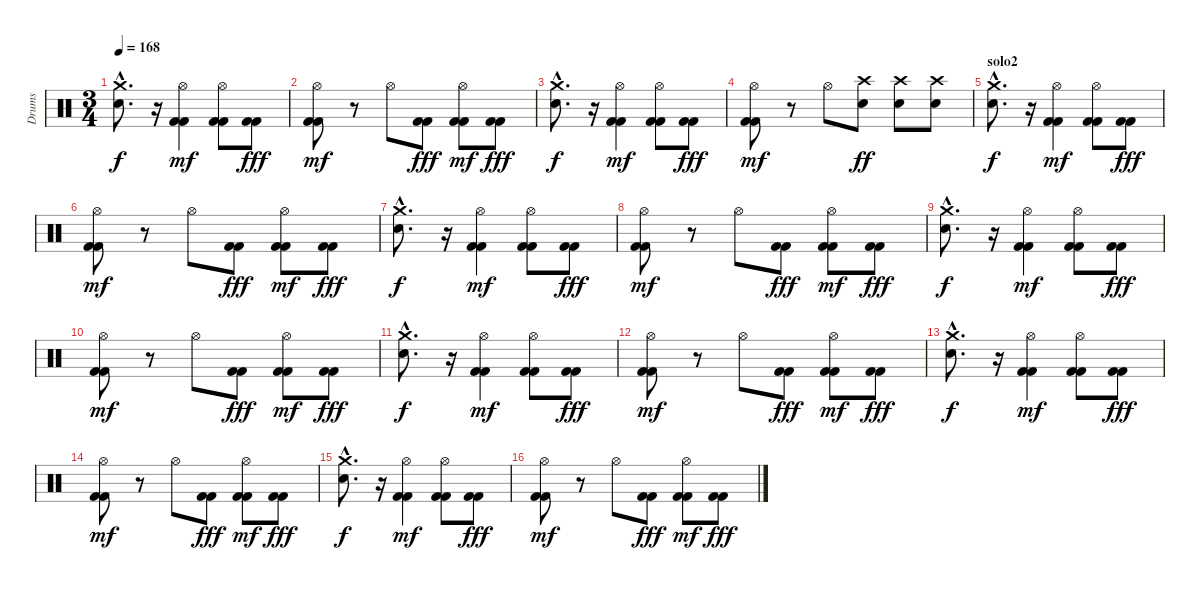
\track ("Drums" "Drums") {instrument percussion}
\staff {score}
\articulation defaults
\ts (3 4)
\tempo 168
\clef neutral
\ks c
("Crash medium (hit)"{hac} "Electric Snare (hit)"{hac}).8{d dy f} r.16 ("Kick (hit) 2" "Kick (hit) 2" "Hi-Hat (open)").4{dy mf} ("Kick (hit) 2" "Kick (hit) 2" "Hi-Hat (open)").8 ("Kick (hit) 2" "Kick (hit) 2").8{dy fff} |
("Kick (hit) 2" "Kick (hit) 2" "Hi-Hat (open)").8{dy mf} r.8 "Hi-Hat (open)".8 ("Kick (hit) 2" "Kick (hit) 2").8{dy fff} ("Kick (hit) 2" "Kick (hit) 2" "Hi-Hat (open)").8{dy mf} ("Kick (hit) 2" "Kick (hit) 2").8{dy fff} |
("Crash medium (hit)"{hac} "Electric Snare (hit)"{hac}).8{d dy f} r.16 ("Kick (hit) 2" "Kick (hit) 2" "Hi-Hat (open)").4{dy mf} ("Kick (hit) 2" "Kick (hit) 2" "Hi-Hat (open)").8 ("Kick (hit) 2" "Kick (hit) 2").8{dy fff} |
("Kick (hit) 2" "Kick (hit) 2" "Hi-Hat (open)").8{dy mf} r.8 "Hi-Hat (open)".8 ("Crash high (hit)" "Electric Snare (hit)").8{dy ff} ("Crash high (hit)" "Electric Snare (hit)").8 ("Crash high (hit)" "Electric Snare (hit)").8 |
\section ("" "solo2")
("Crash medium (hit)"{hac} "Electric Snare (hit)"{hac}).8{d dy f} r.16 ("Kick (hit) 2" "Kick (hit) 2" "Hi-Hat (open)").4{dy mf} ("Kick (hit) 2" "Kick (hit) 2" "Hi-Hat (open)").8 ("Kick (hit) 2" "Kick (hit) 2").8{dy fff} |
("Kick (hit) 2" "Kick (hit) 2" "Hi-Hat (open)").8{dy mf} r.8 "Hi-Hat (open)".8 ("Kick (hit) 2" "Kick (hit) 2").8{dy fff} ("Kick (hit) 2" "Kick (hit) 2" "Hi-Hat (open)").8{dy mf} ("Kick (hit) 2" "Kick (hit) 2").8{dy fff} |
("Crash medium (hit)"{hac} "Electric Snare (hit)"{hac}).8{d dy f} r.16 ("Kick (hit) 2" "Kick (hit) 2" "Hi-Hat (open)").4{dy mf} ("Kick (hit) 2" "Kick (hit) 2" "Hi-Hat (open)").8 ("Kick (hit) 2" "Kick (hit) 2").8{dy fff} |
("Kick (hit) 2" "Kick (hit) 2" "Hi-Hat (open)").8{dy mf} r.8 "Hi-Hat (open)".8 ("Kick (hit) 2" "Kick (hit) 2").8{dy fff} ("Kick (hit) 2" "Kick (hit) 2" "Hi-Hat (open)").8{dy mf} ("Kick (hit) 2" "Kick (hit) 2").8{dy fff} |
("Crash medium (hit)"{hac} "Electric Snare (hit)"{hac}).8{d dy f} r.16 ("Kick (hit) 2" "Kick (hit) 2" "Hi-Hat (open)").4{dy mf} ("Kick (hit) 2" "Kick (hit) 2" "Hi-Hat (open)").8 ("Kick (hit) 2" "Kick (hit) 2").8{dy fff} |
("Kick (hit) 2" "Kick (hit) 2" "Hi-Hat (open)").8{dy mf} r.8 "Hi-Hat (open)".8 ("Kick (hit) 2" "Kick (hit) 2").8{dy fff} ("Kick (hit) 2" "Kick (hit) 2" "Hi-Hat (open)").8{dy mf} ("Kick (hit) 2" "Kick (hit) 2").8{dy fff} |
("Crash medium (hit)"{hac} "Electric Snare (hit)"{hac}).8{d dy f} r.16 ("Kick (hit) 2" "Kick (hit) 2" "Hi-Hat (open)").4{dy mf} ("Kick (hit) 2" "Kick (hit) 2" "Hi-Hat (open)").8 ("Kick (hit) 2" "Kick (hit) 2").8{dy fff} |
("Kick (hit) 2" "Kick (hit) 2" "Hi-Hat (open)").8{dy mf} r.8 "Hi-Hat (open)".8 ("Kick (hit) 2" "Kick (hit) 2").8{dy fff} ("Kick (hit) 2" "Kick (hit) 2" "Hi-Hat (open)").8{dy mf} ("Kick (hit) 2" "Kick (hit) 2").8{dy fff} |
("Crash medium (hit)"{hac} "Electric Snare (hit)"{hac}).8{d dy f} r.16 ("Kick (hit) 2" "Kick (hit) 2" "Hi-Hat (open)").4{dy mf} ("Kick (hit) 2" "Kick (hit) 2" "Hi-Hat (open)").8 ("Kick (hit) 2" "Kick (hit) 2").8{dy fff} |
("Kick (hit) 2" "Kick (hit) 2" "Hi-Hat (open)").8{dy mf} r.8 "Hi-Hat (open)".8 ("Kick (hit) 2" "Kick (hit) 2").8{dy fff} ("Kick (hit) 2" "Kick (hit) 2" "Hi-Hat (open)").8{dy mf} ("Kick (hit) 2" "Kick (hit) 2").8{dy fff} |
("Crash medium (hit)"{hac} "Electric Snare (hit)"{hac}).8{d dy f} r.16 ("Kick (hit) 2" "Kick (hit) 2" "Hi-Hat (open)").4{dy mf} ("Kick (hit) 2" "Kick (hit) 2" "Hi-Hat (open)").8 ("Kick (hit) 2" "Kick (hit) 2").8{dy fff} |
("Kick (hit) 2" "Kick (hit) 2" "Hi-Hat (open)").8{dy mf} r.8 "Hi-Hat (open)".8 ("Kick (hit) 2" "Kick (hit) 2").8{dy fff} ("Kick (hit) 2" "Kick (hit) 2" "Hi-Hat (open)").8{dy mf} ("Kick (hit) 2" "Kick (hit) 2").8{dy fff}
